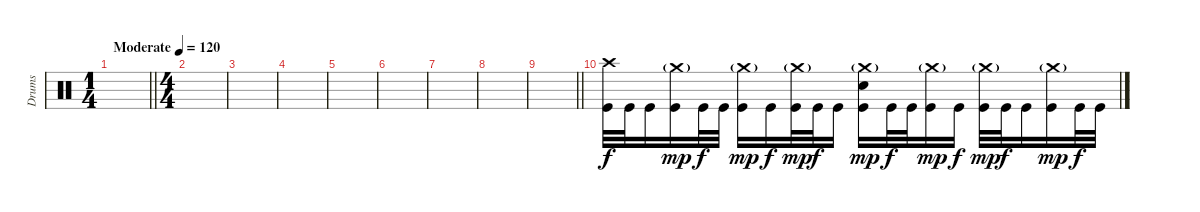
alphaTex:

\track ("Drums" "Drums") {instrument percussion}
\staff
\articulation defaults
\ts (1 4)
\tempo (120 "Moderate")
\clef neutral
\barLineRight lightlight
\ks c
|
\ts (4 4)
|
|
|
|
|
|
|
\barLineRight lightlight
|
("Crash high (hit)" "Kick (hit)").32 "Kick (hit)".32 "Kick (hit)".16 ("Crash medium (hit)"{g} "Kick (hit)").16{dy mp} "Kick (hit)".32{dy f} "Kick (hit)".32 ("Crash medium (hit)"{g} "Kick (hit)").16{dy mp} "Kick (hit)".16{dy f} ("Crash medium (hit)"{g} "Kick (hit)").32{dy mp} "Kick (hit)".32{dy f} "Kick (hit)".16 ("Crash medium (hit)"{g} "Electric Snare (hit)" "Kick (hit)").16{dy mp} "Kick (hit)".32{dy f} "Kick (hit)".32 ("Crash medium (hit)"{g} "Kick (hit)").16{dy mp} "Kick (hit)".16{dy f} ("Crash medium (hit)"{g} "Kick (hit)").32{dy mp} "Kick (hit)".32{dy f} "Kick (hit)".16 ("Crash medium (hit)"{g} "Kick (hit)").16{dy mp} "Kick (hit)".32{dy f} "Kick (hit)".32
